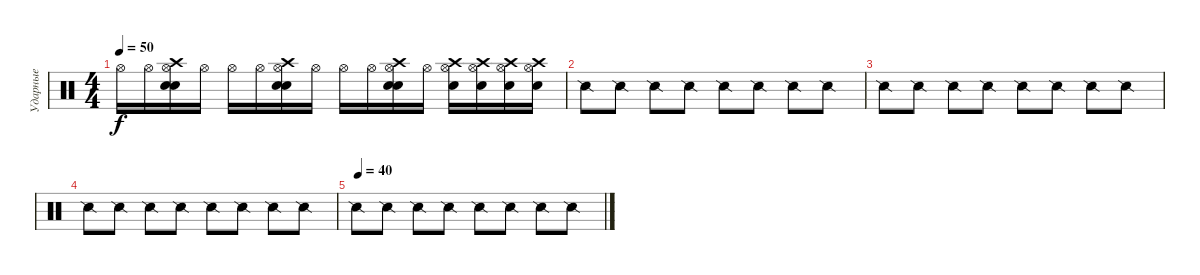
\track ("Ударные" "Ударные") {instrument percussion}
\staff {score}
\articulation defaults
\ts (4 4)
\tempo 50
\clef neutral
\ks c "Hi-Hat (open)".16{dy f} "Hi-Hat (open)".16
("Hi-Hat (open)" "Snare (hit) 2" "Crash high (hit)" "Electric Snare (hit)").16 "Hi-Hat (open)".16 "Hi-Hat (open)".16 "Hi-Hat (open)".16 ("Hi-Hat (open)" "Snare (hit) 2" "Crash high (hit)" "Electric Snare (hit)").16 "Hi-Hat (open)".16 "Hi-Hat (open)".16 "Hi-Hat (open)".16 ("Hi-Hat (open)" "Snare (hit) 2" "Crash high (hit)" "Electric Snare (hit)").16 "Hi-Hat (open)".16 ("Hi-Hat (open)" "Snare (hit) 2" "Crash high (hit)").16 ("Hi-Hat (open)" "Snare (hit) 2" "Crash high (hit)").16 ("Hi-Hat (open)" "Snare (hit) 2" "Crash high (hit)").16 ("Hi-Hat (open)" "Snare (hit) 2" "Crash high (hit)").16 |
"Snare (side stick) 2".8 "Snare (side stick) 2".8 "Snare (side stick) 2".8 "Snare (side stick) 2".8 "Snare (side stick) 2".8 "Snare (side stick) 2".8 "Snare (side stick) 2".8 "Snare (side stick) 2".8 |
"Snare (side stick) 2".8 "Snare (side stick) 2".8 "Snare (side stick) 2".8 "Snare (side stick) 2".8 "Snare (side stick) 2".8 "Snare (side stick) 2".8 "Snare (side stick) 2".8 "Snare (side stick) 2".8 |
"Snare (side stick) 2".8 "Snare (side stick) 2".8 "Snare (side stick) 2".8 "Snare (side stick) 2".8 "Snare (side stick) 2".8 "Snare (side stick) 2".8 "Snare (side stick) 2".8 "Snare (side stick) 2".8 |
\tempo (40)
"Snare (side stick) 2".8 "Snare (side stick) 2".8 "Snare (side stick) 2".8 "Snare (side stick) 2".8 "Snare (side stick) 2".8 "Snare (side stick) 2".8 "Snare (side stick) 2".8 "Snare (side stick) 2".8
